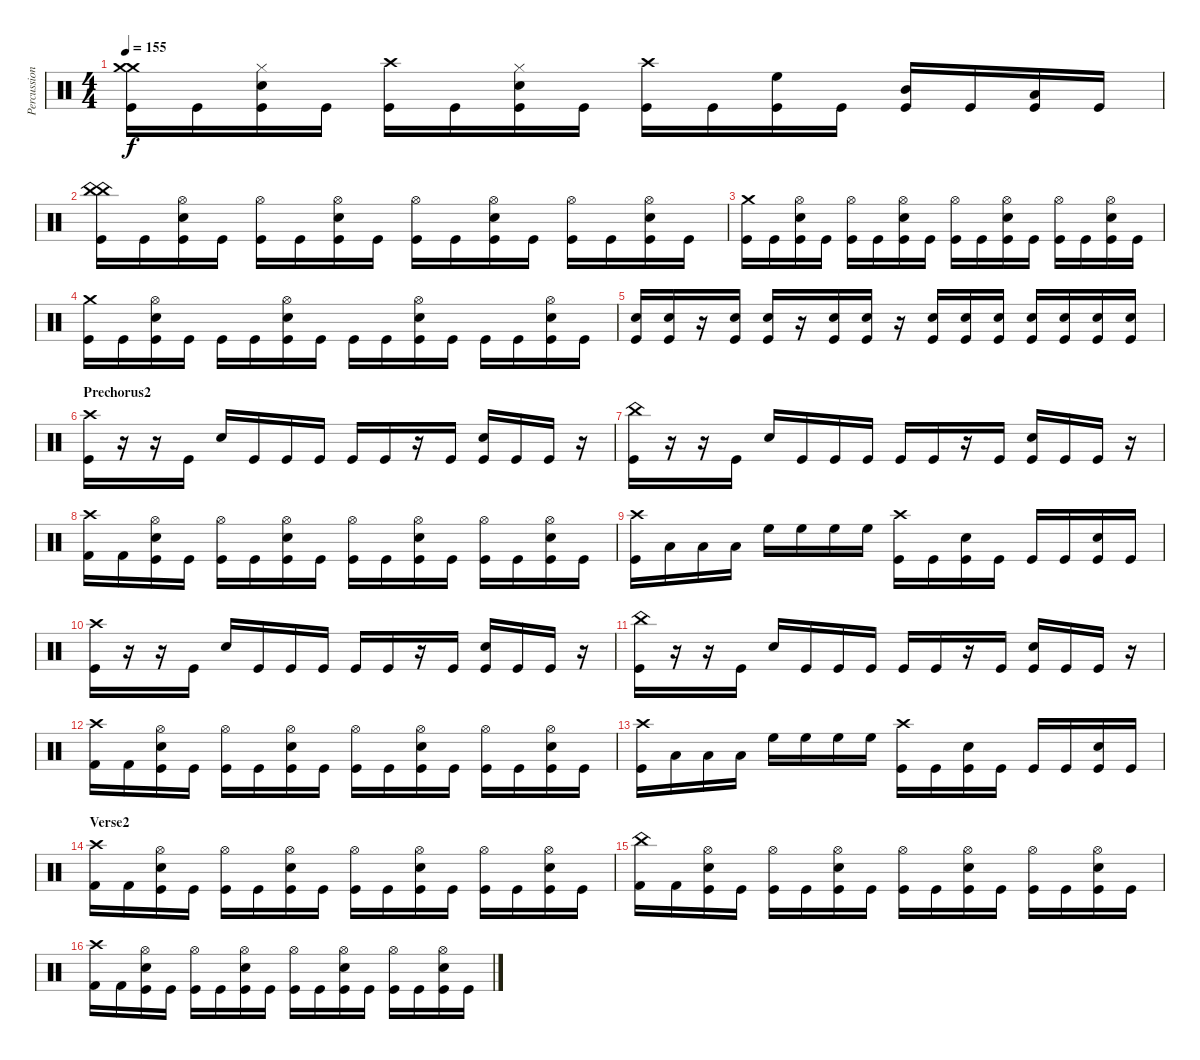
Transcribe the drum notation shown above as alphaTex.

\track ("Percussion" "Percussion") {instrument percussion}
\staff {score}
\articulation defaults
\ts (4 4)
\tempo 155
\clef neutral
\ks c
("Crash medium (hit)" "Crash medium (hit)" "Kick (hit)").16{dy f} "Kick (hit)".16 ("Hi-Hat (closed)" "Electric Snare (hit)" "Kick (hit)").16 "Kick (hit)".16 ("Crash high (hit)" "Kick (hit)").16 "Kick (hit)".16 ("Hi-Hat (closed)" "Electric Snare (hit)" "Kick (hit)").16 "Kick (hit)".16 ("Crash high (hit)" "Kick (hit)").16 "Kick (hit)".16 ("High Floor Tom (hit)" "Kick (hit)").16 "Kick (hit)".16 ("Mid Tom (hit)" "Kick (hit)").16 "Kick (hit)".16 ("Low Tom (hit)" "Kick (hit)").16 "Kick (hit)".16 |
("China (hit)" "China (hit)" "Kick (hit)").16 "Kick (hit)".16 ("Hi-Hat (open)" "Electric Snare (hit)" "Kick (hit)").16 "Kick (hit)".16 ("Hi-Hat (open)" "Kick (hit)").16 "Kick (hit)".16 ("Hi-Hat (open)" "Electric Snare (hit)" "Kick (hit)").16 "Kick (hit)".16 ("Hi-Hat (open)" "Kick (hit)").16 "Kick (hit)".16 ("Hi-Hat (open)" "Electric Snare (hit)" "Kick (hit)").16 "Kick (hit)".16 ("Hi-Hat (open)" "Kick (hit)").16 "Kick (hit)".16 ("Hi-Hat (open)" "Electric Snare (hit)" "Kick (hit)").16 "Kick (hit)".16 |
("Crash medium (hit)" "Kick (hit)").16 "Kick (hit)".16 ("Hi-Hat (open)" "Electric Snare (hit)" "Kick (hit)").16 "Kick (hit)".16 ("Hi-Hat (open)" "Kick (hit)").16 "Kick (hit)".16 ("Hi-Hat (open)" "Electric Snare (hit)" "Kick (hit)").16 "Kick (hit)".16 ("Hi-Hat (open)" "Kick (hit)").16 "Kick (hit)".16 ("Hi-Hat (open)" "Electric Snare (hit)" "Kick (hit)").16 "Kick (hit)".16 ("Hi-Hat (open)" "Kick (hit)").16 "Kick (hit)".16 ("Hi-Hat (open)" "Electric Snare (hit)" "Kick (hit)").16 "Kick (hit)".16 |
("Crash medium (hit)" "Kick (hit)").16 "Kick (hit)".16 ("Hi-Hat (open)" "Electric Snare (hit)" "Kick (hit)").16 "Kick (hit)".16 "Kick (hit)".16 "Kick (hit)".16 ("Hi-Hat (open)" "Electric Snare (hit)" "Kick (hit)").16 "Kick (hit)".16 "Kick (hit)".16 "Kick (hit)".16 ("Hi-Hat (open)" "Electric Snare (hit)" "Kick (hit)").16 "Kick (hit)".16 "Kick (hit)".16 "Kick (hit)".16 ("Hi-Hat (open)" "Electric Snare (hit)" "Kick (hit)").16 "Kick (hit)".16 |
("Electric Snare (hit)" "Kick (hit)").16 ("Electric Snare (hit)" "Kick (hit)").16 r.16 ("Electric Snare (hit)" "Kick (hit)").16 ("Electric Snare (hit)" "Kick (hit)").16 r.16 ("Electric Snare (hit)" "Kick (hit)").16 ("Electric Snare (hit)" "Kick (hit)").16 r.16 ("Electric Snare (hit)" "Kick (hit)").16 ("Electric Snare (hit)" "Kick (hit)").16 ("Electric Snare (hit)" "Kick (hit)").16 ("Electric Snare (hit)" "Kick (hit)").16 ("Electric Snare (hit)" "Kick (hit)").16 ("Electric Snare (hit)" "Kick (hit)").16 ("Electric Snare (hit)" "Kick (hit)").16 |
\section ("" "Prechorus2")
("Crash high (hit)" "Kick (hit)").16 r.16 r.16 "Kick (hit)".16 "Electric Snare (hit)".16 "Kick (hit)".16 "Kick (hit)".16 "Kick (hit)".16 "Kick (hit)".16 "Kick (hit)".16 r.16 "Kick (hit)".16 ("Electric Snare (hit)" "Kick (hit)").16 "Kick (hit)".16 "Kick (hit)".16 r.16 |
("China (hit)" "Kick (hit)").16 r.16 r.16 "Kick (hit)".16 "Electric Snare (hit)".16 "Kick (hit)".16 "Kick (hit)".16 "Kick (hit)".16 "Kick (hit)".16 "Kick (hit)".16 r.16 "Kick (hit)".16 ("Electric Snare (hit)" "Kick (hit)").16 "Kick (hit)".16 "Kick (hit)".16 r.16 |
("Crash high (hit)" "Kick (hit) 2").16 "Kick (hit) 2".16 ("Hi-Hat (open)" "Electric Snare (hit)" "Kick (hit)").16 "Kick (hit)".16 ("Hi-Hat (open)" "Kick (hit)").16 "Kick (hit)".16 ("Hi-Hat (open)" "Electric Snare (hit)" "Kick (hit)").16 "Kick (hit)".16 ("Hi-Hat (open)" "Kick (hit)").16 "Kick (hit)".16 ("Hi-Hat (open)" "Electric Snare (hit)" "Kick (hit)").16 "Kick (hit)".16 ("Hi-Hat (open)" "Kick (hit)").16 "Kick (hit)".16 ("Hi-Hat (open)" "Electric Snare (hit)" "Kick (hit)").16 "Kick (hit)".16 |
("Crash high (hit)" "Kick (hit)").16 "Low Tom (hit)".16 "Low Tom (hit)".16 "Low Tom (hit)".16 "High Floor Tom (hit)".16 "High Floor Tom (hit)".16 "High Floor Tom (hit)".16 "High Floor Tom (hit)".16 ("Crash high (hit)" "Kick (hit)").16 "Kick (hit)".16 ("Electric Snare (hit)" "Kick (hit)").16 "Kick (hit)".16 "Kick (hit)".16 "Kick (hit)".16 ("Electric Snare (hit)" "Kick (hit)").16 "Kick (hit)".16 |
("Crash high (hit)" "Kick (hit)").16 r.16 r.16 "Kick (hit)".16 "Electric Snare (hit)".16 "Kick (hit)".16 "Kick (hit)".16 "Kick (hit)".16 "Kick (hit)".16 "Kick (hit)".16 r.16 "Kick (hit)".16 ("Electric Snare (hit)" "Kick (hit)").16 "Kick (hit)".16 "Kick (hit)".16 r.16 |
("China (hit)" "Kick (hit)").16 r.16 r.16 "Kick (hit)".16 "Electric Snare (hit)".16 "Kick (hit)".16 "Kick (hit)".16 "Kick (hit)".16 "Kick (hit)".16 "Kick (hit)".16 r.16 "Kick (hit)".16 ("Electric Snare (hit)" "Kick (hit)").16 "Kick (hit)".16 "Kick (hit)".16 r.16 |
("Crash high (hit)" "Kick (hit) 2").16 "Kick (hit) 2".16 ("Hi-Hat (open)" "Electric Snare (hit)" "Kick (hit)").16 "Kick (hit)".16 ("Hi-Hat (open)" "Kick (hit)").16 "Kick (hit)".16 ("Hi-Hat (open)" "Electric Snare (hit)" "Kick (hit)").16 "Kick (hit)".16 ("Hi-Hat (open)" "Kick (hit)").16 "Kick (hit)".16 ("Hi-Hat (open)" "Electric Snare (hit)" "Kick (hit)").16 "Kick (hit)".16 ("Hi-Hat (open)" "Kick (hit)").16 "Kick (hit)".16 ("Hi-Hat (open)" "Electric Snare (hit)" "Kick (hit)").16 "Kick (hit)".16 |
("Crash high (hit)" "Kick (hit)").16 "Low Tom (hit)".16 "Low Tom (hit)".16 "Low Tom (hit)".16 "High Floor Tom (hit)".16 "High Floor Tom (hit)".16 "High Floor Tom (hit)".16 "High Floor Tom (hit)".16 ("Crash high (hit)" "Kick (hit)").16 "Kick (hit)".16 ("Electric Snare (hit)" "Kick (hit)").16 "Kick (hit)".16 "Kick (hit)".16 "Kick (hit)".16 ("Electric Snare (hit)" "Kick (hit)").16 "Kick (hit)".16 |
\section ("" "Verse2")
("Crash high (hit)" "Kick (hit) 2").16 "Kick (hit) 2".16 ("Hi-Hat (open)" "Electric Snare (hit)" "Kick (hit)").16 "Kick (hit)".16 ("Hi-Hat (open)" "Kick (hit)").16 "Kick (hit)".16 ("Hi-Hat (open)" "Electric Snare (hit)" "Kick (hit)").16 "Kick (hit)".16 ("Hi-Hat (open)" "Kick (hit)").16 "Kick (hit)".16 ("Hi-Hat (open)" "Electric Snare (hit)" "Kick (hit)").16 "Kick (hit)".16 ("Hi-Hat (open)" "Kick (hit)").16 "Kick (hit)".16 ("Hi-Hat (open)" "Electric Snare (hit)" "Kick (hit)").16 "Kick (hit)".16 |
("China (hit)" "Kick (hit) 2").16 "Kick (hit) 2".16 ("Hi-Hat (open)" "Electric Snare (hit)" "Kick (hit)").16 "Kick (hit)".16 ("Hi-Hat (open)" "Kick (hit)").16 "Kick (hit)".16 ("Hi-Hat (open)" "Electric Snare (hit)" "Kick (hit)").16 "Kick (hit)".16 ("Hi-Hat (open)" "Kick (hit)").16 "Kick (hit)".16 ("Hi-Hat (open)" "Electric Snare (hit)" "Kick (hit)").16 "Kick (hit)".16 ("Hi-Hat (open)" "Kick (hit)").16 "Kick (hit)".16 ("Hi-Hat (open)" "Electric Snare (hit)" "Kick (hit)").16 "Kick (hit)".16 |
("Crash high (hit)" "Kick (hit) 2").16 "Kick (hit) 2".16 ("Hi-Hat (open)" "Electric Snare (hit)" "Kick (hit)").16 "Kick (hit)".16 ("Hi-Hat (open)" "Kick (hit)").16 "Kick (hit)".16 ("Hi-Hat (open)" "Electric Snare (hit)" "Kick (hit)").16 "Kick (hit)".16 ("Hi-Hat (open)" "Kick (hit)").16 "Kick (hit)".16 ("Hi-Hat (open)" "Electric Snare (hit)" "Kick (hit)").16 "Kick (hit)".16 ("Hi-Hat (open)" "Kick (hit)").16 "Kick (hit)".16 ("Hi-Hat (open)" "Electric Snare (hit)" "Kick (hit)").16 "Kick (hit)".16
